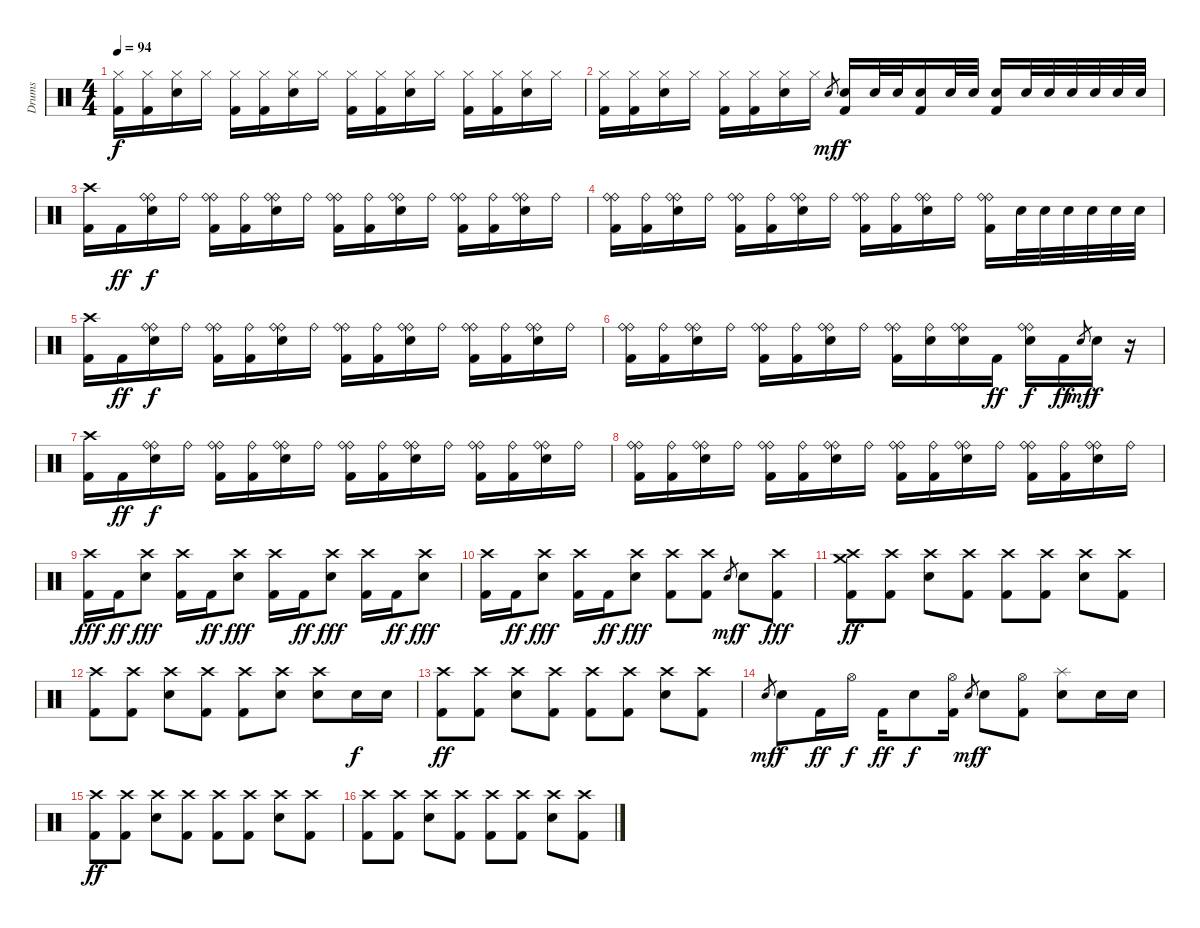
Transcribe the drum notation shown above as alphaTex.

\track ("Drums" "Drums") {instrument percussion}
\staff {score}
\articulation defaults
\ts (4 4)
\tempo 94
\clef neutral
\ks c
("Hi-Hat (closed)" "Kick (hit) 2").16{dy f} ("Hi-Hat (closed)" "Kick (hit) 2").16 ("Hi-Hat (closed)" "Snare (hit) 2").16 "Hi-Hat (closed)".16 ("Hi-Hat (closed)" "Kick (hit) 2").16 ("Hi-Hat (closed)" "Kick (hit) 2").16 ("Hi-Hat (closed)" "Snare (hit) 2").16 "Hi-Hat (closed)".16 ("Hi-Hat (closed)" "Kick (hit) 2").16 ("Hi-Hat (closed)" "Kick (hit) 2").16 ("Hi-Hat (closed)" "Snare (hit) 2").16 "Hi-Hat (closed)".16 ("Hi-Hat (closed)" "Kick (hit) 2").16 ("Hi-Hat (closed)" "Kick (hit) 2").16 ("Hi-Hat (closed)" "Snare (hit) 2").16 "Hi-Hat (closed)".16 |
("Hi-Hat (closed)" "Kick (hit) 2").16 ("Hi-Hat (closed)" "Kick (hit) 2").16 ("Hi-Hat (closed)" "Snare (hit) 2").16 "Hi-Hat (closed)".16 ("Hi-Hat (closed)" "Kick (hit) 2").16 ("Hi-Hat (closed)" "Kick (hit) 2").16 ("Hi-Hat (closed)" "Snare (hit) 2").16 "Hi-Hat (closed)".16 "Snare (hit)".8{gr dy mf} ("Snare (hit) 2" "Kick (hit) 2").16{dy f} "Snare (hit) 2".32 "Snare (hit) 2".32 ("Snare (hit) 2" "Kick (hit) 2").16 "Snare (hit) 2".32 "Snare (hit) 2".32 ("Snare (hit) 2" "Kick (hit) 2").16 "Snare (hit) 2".32 "Snare (hit) 2".32 "Snare (hit) 2".32 "Snare (hit) 2".32 "Snare (hit) 2".32 "Snare (hit) 2".32 |
("Crash high (hit)" "Kick (hit) 2").16 "Kick (hit) 2".16{dy ff} ("Ride (bell)" "Ride (bell)" "Snare (hit) 2").16{dy f} "Ride (bell)".16 ("Ride (bell)" "Ride (bell)" "Kick (hit) 2").16 ("Ride (bell)" "Kick (hit) 2").16 ("Ride (bell)" "Ride (bell)" "Snare (hit) 2").16 "Ride (bell)".16 ("Ride (bell)" "Ride (bell)" "Kick (hit) 2").16 ("Ride (bell)" "Kick (hit) 2").16 ("Ride (bell)" "Ride (bell)" "Snare (hit) 2").16 "Ride (bell)".16 ("Ride (bell)" "Ride (bell)" "Kick (hit) 2").16 ("Ride (bell)" "Kick (hit) 2").16 ("Ride (bell)" "Ride (bell)" "Snare (hit) 2").16 "Ride (bell)".16 |
("Ride (bell)" "Ride (bell)" "Kick (hit) 2").16 ("Ride (bell)" "Kick (hit) 2").16 ("Ride (bell)" "Ride (bell)" "Snare (hit) 2").16 "Ride (bell)".16 ("Ride (bell)" "Ride (bell)" "Kick (hit) 2").16 ("Ride (bell)" "Kick (hit) 2").16 ("Ride (bell)" "Ride (bell)" "Snare (hit) 2").16 "Ride (bell)".16 ("Ride (bell)" "Ride (bell)" "Kick (hit) 2").16 ("Ride (bell)" "Kick (hit) 2").16 ("Ride (bell)" "Ride (bell)" "Snare (hit) 2").16 "Ride (bell)".16 ("Ride (bell)" "Ride (bell)" "Kick (hit) 2").16 "Snare (hit) 2".32 "Snare (hit) 2".32 "Snare (hit) 2".32 "Snare (hit) 2".32 "Snare (hit) 2".32 "Snare (hit) 2".32 |
("Crash high (hit)" "Kick (hit) 2").16 "Kick (hit) 2".16{dy ff} ("Ride (bell)" "Ride (bell)" "Snare (hit) 2").16{dy f} "Ride (bell)".16 ("Ride (bell)" "Ride (bell)" "Kick (hit) 2").16 ("Ride (bell)" "Kick (hit) 2").16 ("Ride (bell)" "Ride (bell)" "Snare (hit) 2").16 "Ride (bell)".16 ("Ride (bell)" "Ride (bell)" "Kick (hit) 2").16 ("Ride (bell)" "Kick (hit) 2").16 ("Ride (bell)" "Ride (bell)" "Snare (hit) 2").16 "Ride (bell)".16 ("Ride (bell)" "Ride (bell)" "Kick (hit) 2").16 ("Ride (bell)" "Kick (hit) 2").16 ("Ride (bell)" "Ride (bell)" "Snare (hit) 2").16 "Ride (bell)".16 |
("Ride (bell)" "Ride (bell)" "Kick (hit) 2").16 ("Ride (bell)" "Kick (hit) 2").16 ("Ride (bell)" "Ride (bell)" "Snare (hit) 2").16 "Ride (bell)".16 ("Ride (bell)" "Ride (bell)" "Kick (hit) 2").16 ("Ride (bell)" "Kick (hit) 2").16 ("Ride (bell)" "Ride (bell)" "Snare (hit) 2").16 "Ride (bell)".16 ("Ride (bell)" "Ride (bell)" "Kick (hit) 2").16 ("Ride (bell)" "Snare (hit) 2").16 ("Ride (bell)" "Ride (bell)" "Snare (hit) 2").16 "Kick (hit) 2".16{dy ff} ("Ride (bell)" "Ride (bell)" "Snare (hit) 2").16{dy f} "Kick (hit) 2".16{dy ff} "Snare (hit)".8{gr dy mf} "Snare (hit) 2".16{dy f} r.16 |
("Crash high (hit)" "Kick (hit) 2").16 "Kick (hit) 2".16{dy ff} ("Ride (bell)" "Ride (bell)" "Snare (hit) 2").16{dy f} "Ride (bell)".16 ("Ride (bell)" "Ride (bell)" "Kick (hit) 2").16 ("Ride (bell)" "Kick (hit) 2").16 ("Ride (bell)" "Ride (bell)" "Snare (hit) 2").16 "Ride (bell)".16 ("Ride (bell)" "Ride (bell)" "Kick (hit) 2").16 ("Ride (bell)" "Kick (hit) 2").16 ("Ride (bell)" "Ride (bell)" "Snare (hit) 2").16 "Ride (bell)".16 ("Ride (bell)" "Ride (bell)" "Kick (hit) 2").16 ("Ride (bell)" "Kick (hit) 2").16 ("Ride (bell)" "Ride (bell)" "Snare (hit) 2").16 "Ride (bell)".16 |
("Ride (bell)" "Ride (bell)" "Kick (hit) 2").16 ("Ride (bell)" "Kick (hit) 2").16 ("Ride (bell)" "Ride (bell)" "Snare (hit) 2").16 "Ride (bell)".16 ("Ride (bell)" "Ride (bell)" "Kick (hit) 2").16 ("Ride (bell)" "Kick (hit) 2").16 ("Ride (bell)" "Ride (bell)" "Snare (hit) 2").16 "Ride (bell)".16 ("Ride (bell)" "Ride (bell)" "Kick (hit) 2").16 ("Ride (bell)" "Kick (hit) 2").16 ("Ride (bell)" "Ride (bell)" "Snare (hit) 2").16 "Ride (bell)".16 ("Ride (bell)" "Ride (bell)" "Kick (hit) 2").16 ("Ride (bell)" "Kick (hit) 2").16 ("Ride (bell)" "Ride (bell)" "Snare (hit) 2").16 "Ride (bell)".16 |
("Crash high (hit)" "Kick (hit) 2").16{dy fff} "Kick (hit) 2".16{dy ff} ("Crash high (hit)" "Snare (hit) 2").8{dy fff} ("Crash high (hit)" "Kick (hit) 2").16 "Kick (hit) 2".16{dy ff} ("Crash high (hit)" "Snare (hit) 2").8{dy fff} ("Crash high (hit)" "Kick (hit) 2").16 "Kick (hit) 2".16{dy ff} ("Crash high (hit)" "Snare (hit) 2").8{dy fff} ("Crash high (hit)" "Kick (hit) 2").16 "Kick (hit) 2".16{dy ff} ("Crash high (hit)" "Snare (hit) 2").8{dy fff} |
("Crash high (hit)" "Kick (hit) 2").16 "Kick (hit) 2".16{dy ff} ("Crash high (hit)" "Snare (hit) 2").8{dy fff} ("Crash high (hit)" "Kick (hit) 2").16 "Kick (hit) 2".16{dy ff} ("Crash high (hit)" "Snare (hit) 2").8{dy fff} ("Crash high (hit)" "Kick (hit) 2").8 ("Crash high (hit)" "Kick (hit) 2").8 "Snare (hit)".8{gr dy mf} "Snare (hit) 2".8{dy f} ("Crash high (hit)" "Kick (hit) 2").8{dy fff} |
("Crash high (hit)" "Crash medium (hit)" "Kick (hit) 2").8{dy ff} ("Crash high (hit)" "Kick (hit) 2").8 ("Crash high (hit)" "Snare (hit) 2").8 ("Crash high (hit)" "Kick (hit) 2").8 ("Crash high (hit)" "Kick (hit) 2").8 ("Crash high (hit)" "Kick (hit) 2").8 ("Crash high (hit)" "Snare (hit) 2").8 ("Crash high (hit)" "Kick (hit) 2").8 |
("Crash high (hit)" "Kick (hit) 2").8 ("Crash high (hit)" "Kick (hit) 2").8 ("Crash high (hit)" "Snare (hit) 2").8 ("Crash high (hit)" "Kick (hit) 2").8 ("Crash high (hit)" "Kick (hit) 2").8 ("Crash high (hit)" "Snare (hit) 2").8 ("Crash high (hit)" "Snare (hit) 2").8 "Snare (hit) 2".16{dy f} "Snare (hit) 2".16 |
("Crash high (hit)" "Kick (hit) 2").8{dy ff} ("Crash high (hit)" "Kick (hit) 2").8 ("Crash high (hit)" "Snare (hit) 2").8 ("Crash high (hit)" "Kick (hit) 2").8 ("Crash high (hit)" "Kick (hit) 2").8 ("Crash high (hit)" "Kick (hit) 2").8 ("Crash high (hit)" "Snare (hit) 2").8 ("Crash high (hit)" "Kick (hit) 2").8 |
"Snare (hit)".8{gr dy mf} "Snare (hit) 2".8{dy f} "Kick (hit) 2".16{dy ff} "Hi-Hat (open)".16{dy f} "Kick (hit) 2".16{dy ff} "Snare (hit) 2".8{dy f} ("Hi-Hat (open)" "Kick (hit) 2").16 "Snare (hit)".8{gr dy mf} "Snare (hit) 2".8{dy f} ("Hi-Hat (open)" "Kick (hit) 2").8 ("Splash (hit)" "Snare (hit) 2").8 "Snare (hit) 2".16 "Snare (hit) 2".16 |
("Crash high (hit)" "Kick (hit) 2").8{dy ff} ("Crash high (hit)" "Kick (hit) 2").8 ("Crash high (hit)" "Snare (hit) 2").8 ("Crash high (hit)" "Kick (hit) 2").8 ("Crash high (hit)" "Kick (hit) 2").8 ("Crash high (hit)" "Kick (hit) 2").8 ("Crash high (hit)" "Snare (hit) 2").8 ("Crash high (hit)" "Kick (hit) 2").8 |
("Crash high (hit)" "Kick (hit) 2").8 ("Crash high (hit)" "Kick (hit) 2").8 ("Crash high (hit)" "Snare (hit) 2").8 ("Crash high (hit)" "Kick (hit) 2").8 ("Crash high (hit)" "Kick (hit) 2").8 ("Crash high (hit)" "Kick (hit) 2").8 ("Crash high (hit)" "Snare (hit) 2").8 ("Crash high (hit)" "Kick (hit) 2").8
